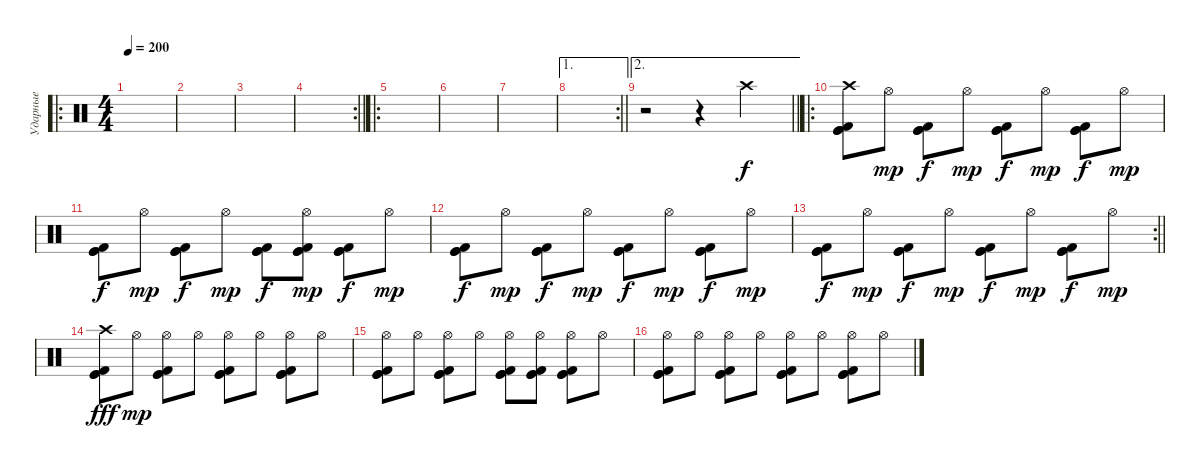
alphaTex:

\track ("Ударные" "Ударные") {instrument percussion}
\staff {score}
\articulation defaults
\ro
\ts (4 4)
\tempo 200
\clef neutral
\ks c
|
|
|
\rc 2
\barLineRight lightlight
|
\ro
|
|
|
\ae 1
\rc 2
\barLineRight lightlight
|
\ae 2
\barLineRight lightlight
r.2 r.4 "Crash high (hit)".4 |
\ro
("Kick (hit)" "Kick (hit)" "Crash high (hit)" "Kick (hit) 2").8 "Hi-Hat (open)".8{dy mp} ("Kick (hit)" "Kick (hit)" "Kick (hit) 2").8{dy f} "Hi-Hat (open)".8{dy mp} ("Kick (hit)" "Kick (hit)" "Kick (hit) 2").8{dy f} "Hi-Hat (open)".8{dy mp} ("Kick (hit)" "Kick (hit)" "Kick (hit) 2").8{dy f} "Hi-Hat (open)".8{dy mp} |
("Kick (hit)" "Kick (hit)" "Kick (hit) 2").8{dy f} "Hi-Hat (open)".8{dy mp} ("Kick (hit)" "Kick (hit)" "Kick (hit) 2").8{dy f} "Hi-Hat (open)".8{dy mp} ("Kick (hit)" "Kick (hit)" "Kick (hit) 2").8{dy f} ("Kick (hit)" "Kick (hit)" "Hi-Hat (open)" "Kick (hit) 2").8{dy mp} ("Kick (hit)" "Kick (hit)" "Kick (hit) 2").8{dy f} "Hi-Hat (open)".8{dy mp} |
("Kick (hit)" "Kick (hit)" "Kick (hit) 2").8{dy f} "Hi-Hat (open)".8{dy mp} ("Kick (hit)" "Kick (hit)" "Kick (hit) 2").8{dy f} "Hi-Hat (open)".8{dy mp} ("Kick (hit)" "Kick (hit)" "Kick (hit) 2").8{dy f} "Hi-Hat (open)".8{dy mp} ("Kick (hit)" "Kick (hit)" "Kick (hit) 2").8{dy f} "Hi-Hat (open)".8{dy mp} |
\rc 2
\barLineRight lightlight
("Kick (hit)" "Kick (hit)" "Kick (hit) 2").8{dy f} "Hi-Hat (open)".8{dy mp} ("Kick (hit)" "Kick (hit)" "Kick (hit) 2").8{dy f} "Hi-Hat (open)".8{dy mp} ("Kick (hit)" "Kick (hit)" "Kick (hit) 2").8{dy f} "Hi-Hat (open)".8{dy mp} ("Kick (hit)" "Kick (hit)" "Kick (hit) 2").8{dy f} "Hi-Hat (open)".8{dy mp} |
("Kick (hit)" "Kick (hit)" "Crash high (hit)" "Kick (hit) 2").8{dy fff} "Hi-Hat (open)".8{dy mp} ("Kick (hit)" "Kick (hit)" "Hi-Hat (open)" "Kick (hit) 2").8 "Hi-Hat (open)".8 ("Kick (hit)" "Kick (hit)" "Hi-Hat (open)" "Kick (hit) 2").8 "Hi-Hat (open)".8 ("Kick (hit)" "Kick (hit)" "Hi-Hat (open)" "Kick (hit) 2").8 "Hi-Hat (open)".8 |
("Kick (hit)" "Kick (hit)" "Hi-Hat (open)" "Kick (hit) 2").8 "Hi-Hat (open)".8 ("Kick (hit)" "Kick (hit)" "Hi-Hat (open)" "Kick (hit) 2").8 "Hi-Hat (open)".8 ("Kick (hit)" "Kick (hit)" "Hi-Hat (open)" "Kick (hit) 2").8 ("Kick (hit)" "Kick (hit)" "Hi-Hat (open)" "Kick (hit) 2").8 ("Kick (hit)" "Kick (hit)" "Hi-Hat (open)" "Kick (hit) 2").8 "Hi-Hat (open)".8 |
("Kick (hit)" "Kick (hit)" "Hi-Hat (open)" "Kick (hit) 2").8 "Hi-Hat (open)".8 ("Kick (hit)" "Kick (hit)" "Hi-Hat (open)" "Kick (hit) 2").8 "Hi-Hat (open)".8 ("Kick (hit)" "Kick (hit)" "Hi-Hat (open)" "Kick (hit) 2").8 "Hi-Hat (open)".8 ("Kick (hit)" "Kick (hit)" "Hi-Hat (open)" "Kick (hit) 2").8 "Hi-Hat (open)".8
